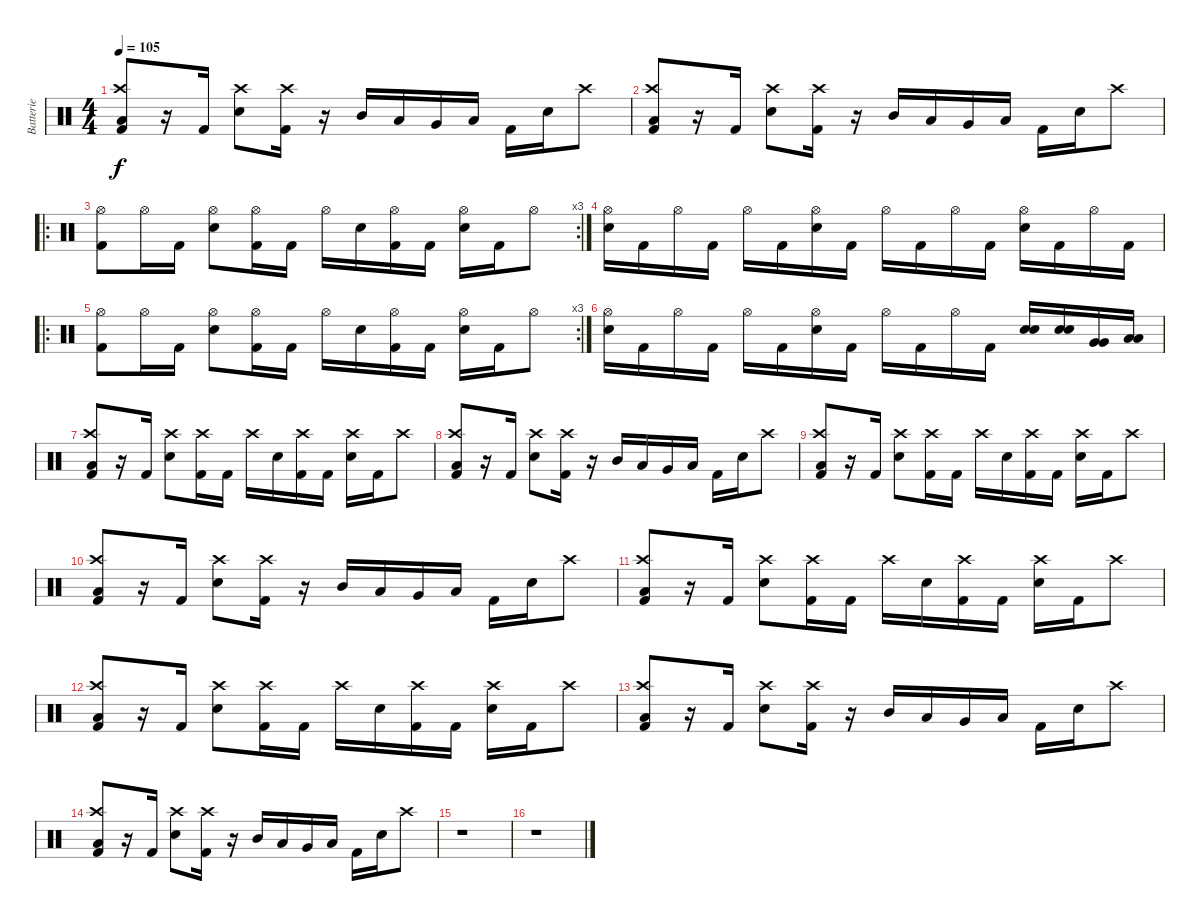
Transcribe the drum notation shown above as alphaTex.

\track ("Batterie" "Batterie") {instrument percussion}
\staff {score}
\articulation defaults
\ts (4 4)
\tempo 105
\clef neutral
\ks c
("Low Floor Tom (hit)" "Crash high (hit)" "Kick (hit) 2").8{dy f} r.16 "Kick (hit) 2".16 ("Crash high (hit)" "Electric Snare (hit)").8 ("Crash high (hit)" "Kick (hit) 2").16 r.16 "Mid Tom (hit)".16 "Low Tom (hit)".16 "Very Low Tom (hit)".16 "Low Floor Tom (hit)".16 "Kick (hit) 2".16 "Electric Snare (hit)".16 "Crash high (hit)".8 |
("Low Floor Tom (hit)" "Crash high (hit)" "Kick (hit) 2").8 r.16 "Kick (hit) 2".16 ("Crash high (hit)" "Electric Snare (hit)").8 ("Crash high (hit)" "Kick (hit) 2").16 r.16 "Mid Tom (hit)".16 "Low Tom (hit)".16 "Very Low Tom (hit)".16 "Low Floor Tom (hit)".16 "Kick (hit) 2".16 "Electric Snare (hit)".16 "Crash high (hit)".8 |
\ro
\rc 3
("Hi-Hat (open)" "Kick (hit) 2").8 "Hi-Hat (open)".16 "Kick (hit) 2".16 ("Hi-Hat (open)" "Electric Snare (hit)").8 ("Hi-Hat (open)" "Kick (hit) 2").16 "Kick (hit) 2".16 "Hi-Hat (open)".16 "Electric Snare (hit)".16 ("Hi-Hat (open)" "Kick (hit) 2").16 "Kick (hit) 2".16 ("Hi-Hat (open)" "Electric Snare (hit)").16 "Kick (hit) 2".16 "Hi-Hat (open)".8 |
("Hi-Hat (open)" "Electric Snare (hit)").16 "Kick (hit) 2".16 "Hi-Hat (open)".16 "Kick (hit) 2".16 "Hi-Hat (open)".16 "Kick (hit) 2".16 ("Hi-Hat (open)" "Electric Snare (hit)").16 "Kick (hit) 2".16 "Hi-Hat (open)".16 "Kick (hit) 2".16 "Hi-Hat (open)".16 "Kick (hit) 2".16 ("Hi-Hat (open)" "Electric Snare (hit)").16 "Kick (hit) 2".16 "Hi-Hat (open)".16 "Kick (hit) 2".16 |
\ro
\rc 3
("Hi-Hat (open)" "Kick (hit) 2").8 "Hi-Hat (open)".16 "Kick (hit) 2".16 ("Hi-Hat (open)" "Electric Snare (hit)").8 ("Hi-Hat (open)" "Kick (hit) 2").16 "Kick (hit) 2".16 "Hi-Hat (open)".16 "Electric Snare (hit)".16 ("Hi-Hat (open)" "Kick (hit) 2").16 "Kick (hit) 2".16 ("Hi-Hat (open)" "Electric Snare (hit)").16 "Kick (hit) 2".16 "Hi-Hat (open)".8 |
("Hi-Hat (open)" "Electric Snare (hit)").16 "Kick (hit) 2".16 "Hi-Hat (open)".16 "Kick (hit) 2".16 "Hi-Hat (open)".16 "Kick (hit) 2".16 ("Hi-Hat (open)" "Electric Snare (hit)").16 "Kick (hit) 2".16 "Hi-Hat (open)".16 "Kick (hit) 2".16 "Hi-Hat (open)".16 "Kick (hit) 2".16 ("Electric Snare (hit)" "Electric Snare (hit)").16 ("Electric Snare (hit)" "Electric Snare (hit)").16 ("Very Low Tom (hit)" "Very Low Tom (hit)").16 ("Low Floor Tom (hit)" "Low Floor Tom (hit)").16 |
("Low Floor Tom (hit)" "Crash high (hit)" "Kick (hit) 2").8 r.16 "Kick (hit) 2".16 ("Crash high (hit)" "Electric Snare (hit)").8 ("Crash high (hit)" "Kick (hit) 2").16 "Kick (hit) 2".16 "Crash high (hit)".16 "Electric Snare (hit)".16 ("Crash high (hit)" "Kick (hit) 2").16 "Kick (hit) 2".16 ("Crash high (hit)" "Electric Snare (hit)").16 "Kick (hit) 2".16 "Crash high (hit)".8 |
("Low Floor Tom (hit)" "Crash high (hit)" "Kick (hit) 2").8 r.16 "Kick (hit) 2".16 ("Crash high (hit)" "Electric Snare (hit)").8 ("Crash high (hit)" "Kick (hit) 2").16 r.16 "Mid Tom (hit)".16 "Low Tom (hit)".16 "Very Low Tom (hit)".16 "Low Floor Tom (hit)".16 "Kick (hit) 2".16 "Electric Snare (hit)".16 "Crash high (hit)".8 |
("Low Floor Tom (hit)" "Crash high (hit)" "Kick (hit) 2").8 r.16 "Kick (hit) 2".16 ("Crash high (hit)" "Electric Snare (hit)").8 ("Crash high (hit)" "Kick (hit) 2").16 "Kick (hit) 2".16 "Crash high (hit)".16 "Electric Snare (hit)".16 ("Crash high (hit)" "Kick (hit) 2").16 "Kick (hit) 2".16 ("Crash high (hit)" "Electric Snare (hit)").16 "Kick (hit) 2".16 "Crash high (hit)".8 |
("Low Floor Tom (hit)" "Crash high (hit)" "Kick (hit) 2").8 r.16 "Kick (hit) 2".16 ("Crash high (hit)" "Electric Snare (hit)").8 ("Crash high (hit)" "Kick (hit) 2").16 r.16 "Mid Tom (hit)".16 "Low Tom (hit)".16 "Very Low Tom (hit)".16 "Low Floor Tom (hit)".16 "Kick (hit) 2".16 "Electric Snare (hit)".16 "Crash high (hit)".8 |
("Low Floor Tom (hit)" "Crash high (hit)" "Kick (hit) 2").8 r.16 "Kick (hit) 2".16 ("Crash high (hit)" "Electric Snare (hit)").8 ("Crash high (hit)" "Kick (hit) 2").16 "Kick (hit) 2".16 "Crash high (hit)".16 "Electric Snare (hit)".16 ("Crash high (hit)" "Kick (hit) 2").16 "Kick (hit) 2".16 ("Crash high (hit)" "Electric Snare (hit)").16 "Kick (hit) 2".16 "Crash high (hit)".8 |
("Low Floor Tom (hit)" "Crash high (hit)" "Kick (hit) 2").8 r.16 "Kick (hit) 2".16 ("Crash high (hit)" "Electric Snare (hit)").8 ("Crash high (hit)" "Kick (hit) 2").16 "Kick (hit) 2".16 "Crash high (hit)".16 "Electric Snare (hit)".16 ("Crash high (hit)" "Kick (hit) 2").16 "Kick (hit) 2".16 ("Crash high (hit)" "Electric Snare (hit)").16 "Kick (hit) 2".16 "Crash high (hit)".8 |
("Low Floor Tom (hit)" "Crash high (hit)" "Kick (hit) 2").8 r.16 "Kick (hit) 2".16 ("Crash high (hit)" "Electric Snare (hit)").8 ("Crash high (hit)" "Kick (hit) 2").16 r.16 "Mid Tom (hit)".16 "Low Tom (hit)".16 "Very Low Tom (hit)".16 "Low Floor Tom (hit)".16 "Kick (hit) 2".16 "Electric Snare (hit)".16 "Crash high (hit)".8 |
("Low Floor Tom (hit)" "Crash high (hit)" "Kick (hit) 2").8 r.16 "Kick (hit) 2".16 ("Crash high (hit)" "Electric Snare (hit)").8 ("Crash high (hit)" "Kick (hit) 2").16 r.16 "Mid Tom (hit)".16 "Low Tom (hit)".16 "Very Low Tom (hit)".16 "Low Floor Tom (hit)".16 "Kick (hit) 2".16 "Electric Snare (hit)".16 "Crash high (hit)".8 |
r.1 |
r.1
